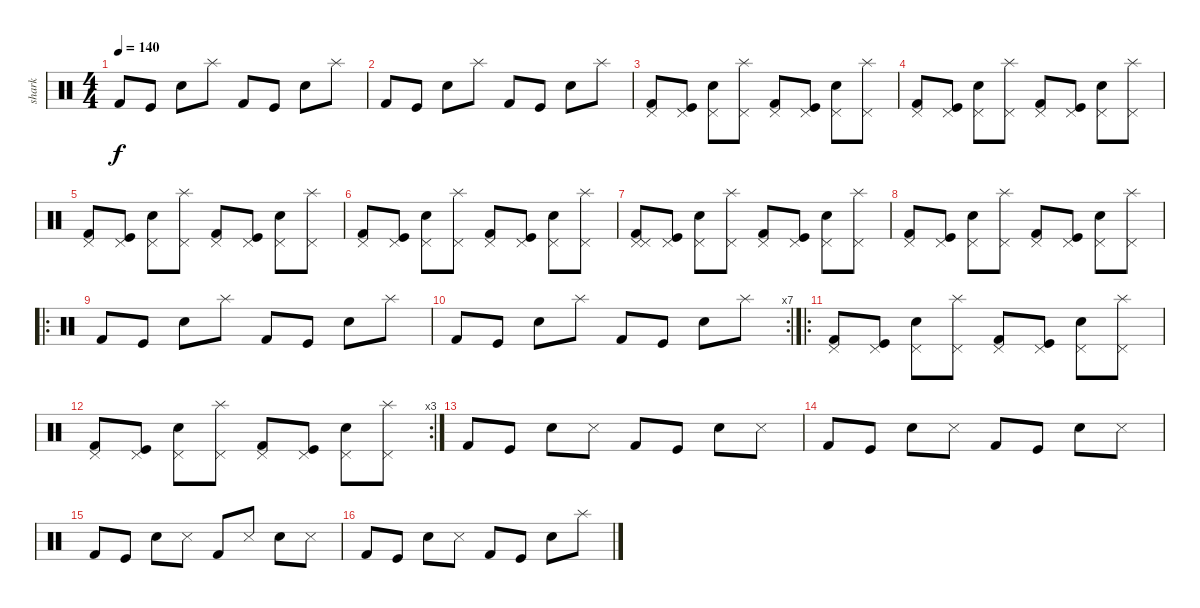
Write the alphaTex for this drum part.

\track ("shark" "shark") {instrument percussion}
\staff {score}
\articulation defaults
\ts (4 4)
\tempo 140
\clef neutral
\ks c "Kick (hit) 2".8{dy f} "Kick (hit)".8 "Snare (hit) 2".8 "Splash (hit)".8 "Kick (hit) 2".8 "Kick (hit)".8 "Snare (hit) 2".8 "Splash (hit)".8
|
"Kick (hit) 2".8 "Kick (hit)".8 "Snare (hit) 2".8 "Splash (hit)".8 "Kick (hit) 2".8 "Kick (hit)".8 "Snare (hit) 2".8 "Splash (hit)".8 |
("Pedal Hi-Hat (hit)" "Kick (hit) 2").8 ("Pedal Hi-Hat (hit)" "Kick (hit)").8 ("Pedal Hi-Hat (hit)" "Snare (hit) 2").8 ("Pedal Hi-Hat (hit)" "Splash (hit)").8 ("Pedal Hi-Hat (hit)" "Kick (hit) 2").8 ("Pedal Hi-Hat (hit)" "Kick (hit)").8 ("Pedal Hi-Hat (hit)" "Snare (hit) 2").8 ("Pedal Hi-Hat (hit)" "Splash (hit)").8 |
("Pedal Hi-Hat (hit)" "Kick (hit) 2").8 ("Pedal Hi-Hat (hit)" "Kick (hit)").8 ("Pedal Hi-Hat (hit)" "Snare (hit) 2").8 ("Pedal Hi-Hat (hit)" "Splash (hit)").8 ("Pedal Hi-Hat (hit)" "Kick (hit) 2").8 ("Pedal Hi-Hat (hit)" "Kick (hit)").8 ("Pedal Hi-Hat (hit)" "Snare (hit) 2").8 ("Pedal Hi-Hat (hit)" "Splash (hit)").8 |
("Pedal Hi-Hat (hit)" "Kick (hit) 2").8 ("Pedal Hi-Hat (hit)" "Kick (hit)").8 ("Pedal Hi-Hat (hit)" "Snare (hit) 2").8 ("Pedal Hi-Hat (hit)" "Splash (hit)").8 ("Pedal Hi-Hat (hit)" "Kick (hit) 2").8 ("Pedal Hi-Hat (hit)" "Kick (hit)").8 ("Pedal Hi-Hat (hit)" "Snare (hit) 2").8 ("Pedal Hi-Hat (hit)" "Splash (hit)").8 |
("Pedal Hi-Hat (hit)" "Kick (hit) 2").8 ("Pedal Hi-Hat (hit)" "Kick (hit)").8 ("Pedal Hi-Hat (hit)" "Snare (hit) 2").8 ("Pedal Hi-Hat (hit)" "Splash (hit)").8 ("Pedal Hi-Hat (hit)" "Kick (hit) 2").8 ("Pedal Hi-Hat (hit)" "Kick (hit)").8 ("Pedal Hi-Hat (hit)" "Snare (hit) 2").8 ("Pedal Hi-Hat (hit)" "Splash (hit)").8 |
("Pedal Hi-Hat (hit)" "Pedal Hi-Hat (hit)" "Kick (hit) 2").8 ("Pedal Hi-Hat (hit)" "Kick (hit)").8 ("Pedal Hi-Hat (hit)" "Snare (hit) 2").8 ("Pedal Hi-Hat (hit)" "Splash (hit)").8 ("Pedal Hi-Hat (hit)" "Kick (hit) 2").8 ("Pedal Hi-Hat (hit)" "Kick (hit)").8 ("Pedal Hi-Hat (hit)" "Snare (hit) 2").8 ("Pedal Hi-Hat (hit)" "Splash (hit)").8 |
("Pedal Hi-Hat (hit)" "Kick (hit) 2").8 ("Pedal Hi-Hat (hit)" "Kick (hit)").8 ("Pedal Hi-Hat (hit)" "Snare (hit) 2").8 ("Pedal Hi-Hat (hit)" "Splash (hit)").8 ("Pedal Hi-Hat (hit)" "Kick (hit) 2").8 ("Pedal Hi-Hat (hit)" "Kick (hit)").8 ("Pedal Hi-Hat (hit)" "Snare (hit) 2").8 ("Pedal Hi-Hat (hit)" "Splash (hit)").8 |
\ro "Kick (hit) 2".8 "Kick (hit)".8 "Snare (hit) 2".8 "Splash (hit)".8 "Kick (hit) 2".8 "Kick (hit)".8 "Snare (hit) 2".8 "Splash (hit)".8
|
\rc 7 "Kick (hit) 2".8 "Kick (hit)".8 "Snare (hit) 2".8 "Splash (hit)".8 "Kick (hit) 2".8 "Kick (hit)".8 "Snare (hit) 2".8 "Splash (hit)".8
|
\ro
("Pedal Hi-Hat (hit)" "Kick (hit) 2").8 ("Pedal Hi-Hat (hit)" "Kick (hit)").8 ("Pedal Hi-Hat (hit)" "Snare (hit) 2").8 ("Pedal Hi-Hat (hit)" "Splash (hit)").8 ("Pedal Hi-Hat (hit)" "Kick (hit) 2").8 ("Pedal Hi-Hat (hit)" "Kick (hit)").8 ("Pedal Hi-Hat (hit)" "Snare (hit) 2").8 ("Pedal Hi-Hat (hit)" "Splash (hit)").8 |
\rc 3
("Pedal Hi-Hat (hit)" "Kick (hit) 2").8 ("Pedal Hi-Hat (hit)" "Kick (hit)").8 ("Pedal Hi-Hat (hit)" "Snare (hit) 2").8 ("Pedal Hi-Hat (hit)" "Splash (hit)").8 ("Pedal Hi-Hat (hit)" "Kick (hit) 2").8 ("Pedal Hi-Hat (hit)" "Kick (hit)").8 ("Pedal Hi-Hat (hit)" "Snare (hit) 2").8 ("Pedal Hi-Hat (hit)" "Splash (hit)").8 |
"Kick (hit) 2".8 "Kick (hit)".8 "Snare (hit) 2".8 "Snare (side stick) 3".8 "Kick (hit) 2".8 "Kick (hit)".8 "Snare (hit) 2".8 "Snare (side stick) 3".8 |
"Kick (hit) 2".8 "Kick (hit)".8 "Snare (hit) 2".8 "Snare (side stick) 3".8 "Kick (hit) 2".8 "Kick (hit)".8 "Snare (hit) 2".8 "Snare (side stick) 3".8 |
"Kick (hit) 2".8 "Kick (hit)".8 "Snare (hit) 2".8 "Snare (side stick) 3".8 "Kick (hit) 2".8 "Snare (side stick) 3".8 "Snare (hit) 2".8 "Snare (side stick) 3".8 |
"Kick (hit) 2".8 "Kick (hit)".8 "Snare (hit) 2".8 "Snare (side stick) 3".8 "Kick (hit) 2".8 "Kick (hit)".8 "Snare (hit) 2".8 "Splash (hit)".8
